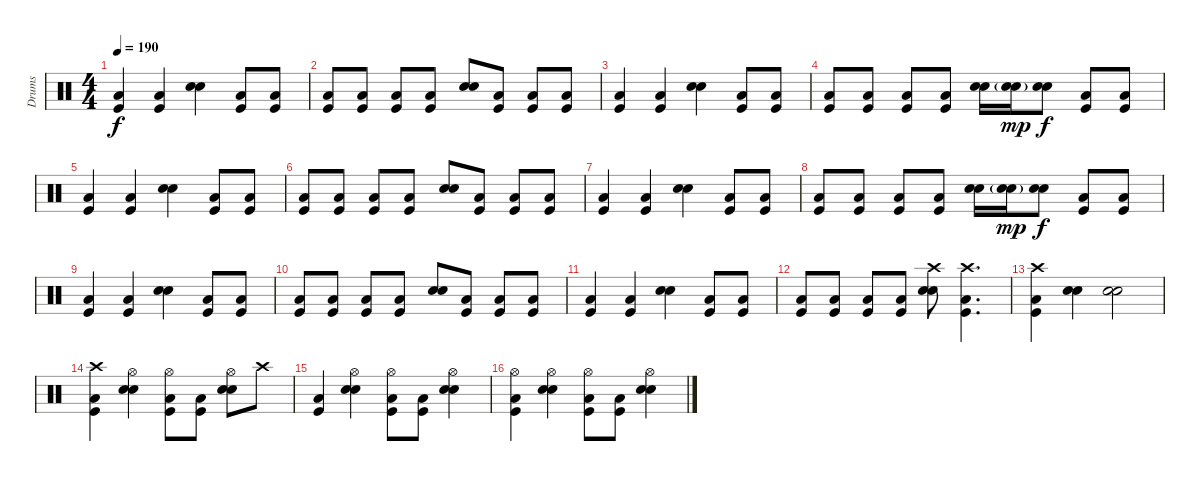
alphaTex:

\track ("Drums" "Drums") {instrument percussion}
\staff {score}
\articulation defaults
\ts (4 4)
\tempo 190
\clef neutral
\ks c
("Kick (hit)" "Low Tom (hit)").4{dy f} ("Kick (hit)" "Low Tom (hit)").4 ("Snare (hit) 2" "Electric Snare (hit)").4 ("Kick (hit)" "Low Tom (hit)").8 ("Kick (hit)" "Low Tom (hit)").8 |
("Kick (hit)" "Low Tom (hit)").8 ("Kick (hit)" "Low Tom (hit)").8 ("Kick (hit)" "Low Tom (hit)").8 ("Kick (hit)" "Low Tom (hit)").8 ("Snare (hit) 2" "Electric Snare (hit)").8 ("Kick (hit)" "Low Tom (hit)").8 ("Kick (hit)" "Low Tom (hit)").8 ("Kick (hit)" "Low Tom (hit)").8 |
("Kick (hit)" "Low Tom (hit)").4 ("Kick (hit)" "Low Tom (hit)").4 ("Snare (hit) 2" "Electric Snare (hit)").4 ("Kick (hit)" "Low Tom (hit)").8 ("Kick (hit)" "Low Tom (hit)").8 |
("Kick (hit)" "Low Tom (hit)").8 ("Kick (hit)" "Low Tom (hit)").8 ("Kick (hit)" "Low Tom (hit)").8 ("Kick (hit)" "Low Tom (hit)").8 ("Snare (hit) 2" "Electric Snare (hit)").16 ("Snare (hit) 2"{g} "Electric Snare (hit)"{g}).16{dy mp} ("Snare (hit) 2" "Electric Snare (hit)").8{dy f} ("Kick (hit)" "Low Tom (hit)").8 ("Kick (hit)" "Low Tom (hit)").8 |
("Kick (hit)" "Low Tom (hit)").4 ("Kick (hit)" "Low Tom (hit)").4 ("Snare (hit) 2" "Electric Snare (hit)").4 ("Kick (hit)" "Low Tom (hit)").8 ("Kick (hit)" "Low Tom (hit)").8 |
("Kick (hit)" "Low Tom (hit)").8 ("Kick (hit)" "Low Tom (hit)").8 ("Kick (hit)" "Low Tom (hit)").8 ("Kick (hit)" "Low Tom (hit)").8 ("Snare (hit) 2" "Electric Snare (hit)").8 ("Kick (hit)" "Low Tom (hit)").8 ("Kick (hit)" "Low Tom (hit)").8 ("Kick (hit)" "Low Tom (hit)").8 |
("Kick (hit)" "Low Tom (hit)").4 ("Kick (hit)" "Low Tom (hit)").4 ("Snare (hit) 2" "Electric Snare (hit)").4 ("Kick (hit)" "Low Tom (hit)").8 ("Kick (hit)" "Low Tom (hit)").8 |
("Kick (hit)" "Low Tom (hit)").8 ("Kick (hit)" "Low Tom (hit)").8 ("Kick (hit)" "Low Tom (hit)").8 ("Kick (hit)" "Low Tom (hit)").8 ("Snare (hit) 2" "Electric Snare (hit)").16 ("Snare (hit) 2"{g} "Electric Snare (hit)"{g}).16{dy mp} ("Snare (hit) 2" "Electric Snare (hit)").8{dy f} ("Kick (hit)" "Low Tom (hit)").8 ("Kick (hit)" "Low Tom (hit)").8 |
("Kick (hit)" "Low Tom (hit)").4 ("Kick (hit)" "Low Tom (hit)").4 ("Snare (hit) 2" "Electric Snare (hit)").4 ("Kick (hit)" "Low Tom (hit)").8 ("Kick (hit)" "Low Tom (hit)").8 |
("Kick (hit)" "Low Tom (hit)").8 ("Kick (hit)" "Low Tom (hit)").8 ("Kick (hit)" "Low Tom (hit)").8 ("Kick (hit)" "Low Tom (hit)").8 ("Snare (hit) 2" "Electric Snare (hit)").8 ("Kick (hit)" "Low Tom (hit)").8 ("Kick (hit)" "Low Tom (hit)").8 ("Kick (hit)" "Low Tom (hit)").8 |
("Kick (hit)" "Low Tom (hit)").4 ("Kick (hit)" "Low Tom (hit)").4 ("Snare (hit) 2" "Electric Snare (hit)").4 ("Kick (hit)" "Low Tom (hit)").8 ("Kick (hit)" "Low Tom (hit)").8 |
("Kick (hit)" "Low Tom (hit)").8 ("Kick (hit)" "Low Tom (hit)").8 ("Kick (hit)" "Low Tom (hit)").8 ("Kick (hit)" "Low Tom (hit)").8 ("Crash high (hit)" "Snare (hit) 2" "Electric Snare (hit)").8 ("Crash high (hit)" "Kick (hit)" "Low Tom (hit)").4{d} |
("Crash high (hit)" "Kick (hit)" "Low Tom (hit)").4 ("Snare (hit) 2" "Electric Snare (hit)").4 ("Snare (hit) 2" "Electric Snare (hit)").2 |
("Crash high (hit)" "Kick (hit)" "Low Tom (hit)").4 ("Hi-Hat (open)" "Snare (hit) 2" "Electric Snare (hit)").4 ("Hi-Hat (open)" "Kick (hit)" "Low Tom (hit)").8 ("Kick (hit)" "Low Tom (hit)").8 ("Hi-Hat (open)" "Snare (hit) 2" "Electric Snare (hit)").8 "Crash high (hit)".8 |
("Kick (hit)" "Low Tom (hit)").4 ("Hi-Hat (open)" "Snare (hit) 2" "Electric Snare (hit)").4 ("Hi-Hat (open)" "Kick (hit)" "Low Tom (hit)").8 ("Kick (hit)" "Low Tom (hit)").8 ("Hi-Hat (open)" "Snare (hit) 2" "Electric Snare (hit)").4 |
("Hi-Hat (open)" "Kick (hit)" "Low Tom (hit)").4 ("Hi-Hat (open)" "Snare (hit) 2" "Electric Snare (hit)").4 ("Hi-Hat (open)" "Kick (hit)" "Low Tom (hit)").8 ("Kick (hit)" "Low Tom (hit)").8 ("Hi-Hat (open)" "Snare (hit) 2" "Electric Snare (hit)").4
